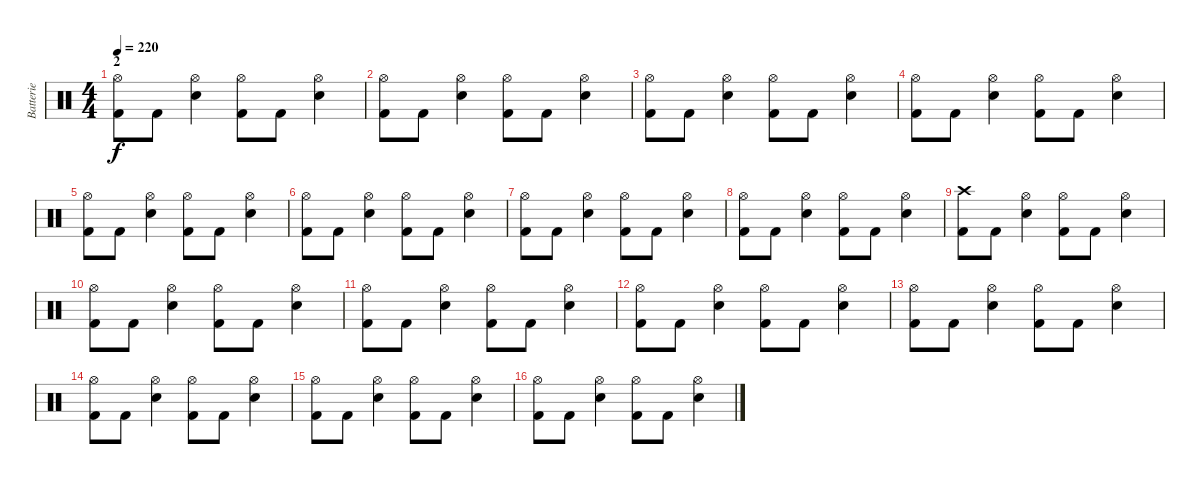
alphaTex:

\track ("Batterie" "Batterie") {instrument percussion}
\staff {score}
\articulation defaults
\ts (4 4)
\section ("" "2")
\tempo 220
\clef neutral
\ks c
("Hi-Hat (open)" "Kick (hit) 2").8{dy f} "Kick (hit) 2".8 ("Hi-Hat (open)" "Electric Snare (hit)").4 ("Hi-Hat (open)" "Kick (hit) 2").8 "Kick (hit) 2".8 ("Hi-Hat (open)" "Electric Snare (hit)").4 |
("Hi-Hat (open)" "Kick (hit) 2").8 "Kick (hit) 2".8 ("Hi-Hat (open)" "Electric Snare (hit)").4 ("Hi-Hat (open)" "Kick (hit) 2").8 "Kick (hit) 2".8 ("Hi-Hat (open)" "Electric Snare (hit)").4 |
("Hi-Hat (open)" "Kick (hit) 2").8 "Kick (hit) 2".8 ("Hi-Hat (open)" "Electric Snare (hit)").4 ("Hi-Hat (open)" "Kick (hit) 2").8 "Kick (hit) 2".8 ("Hi-Hat (open)" "Electric Snare (hit)").4 |
("Hi-Hat (open)" "Kick (hit) 2").8 "Kick (hit) 2".8 ("Hi-Hat (open)" "Electric Snare (hit)").4 ("Hi-Hat (open)" "Kick (hit) 2").8 "Kick (hit) 2".8 ("Hi-Hat (open)" "Electric Snare (hit)").4 |
("Hi-Hat (open)" "Kick (hit) 2").8 "Kick (hit) 2".8 ("Hi-Hat (open)" "Electric Snare (hit)").4 ("Hi-Hat (open)" "Kick (hit) 2").8 "Kick (hit) 2".8 ("Hi-Hat (open)" "Electric Snare (hit)").4 |
("Hi-Hat (open)" "Kick (hit) 2").8 "Kick (hit) 2".8 ("Hi-Hat (open)" "Electric Snare (hit)").4 ("Hi-Hat (open)" "Kick (hit) 2").8 "Kick (hit) 2".8 ("Hi-Hat (open)" "Electric Snare (hit)").4 |
("Hi-Hat (open)" "Kick (hit) 2").8 "Kick (hit) 2".8 ("Hi-Hat (open)" "Electric Snare (hit)").4 ("Hi-Hat (open)" "Kick (hit) 2").8 "Kick (hit) 2".8 ("Hi-Hat (open)" "Electric Snare (hit)").4 |
("Hi-Hat (open)" "Kick (hit) 2").8 "Kick (hit) 2".8 ("Hi-Hat (open)" "Electric Snare (hit)").4 ("Hi-Hat (open)" "Kick (hit) 2").8 "Kick (hit) 2".8 ("Hi-Hat (open)" "Electric Snare (hit)").4 |
("Crash high (hit)" "Kick (hit) 2").8 "Kick (hit) 2".8 ("Hi-Hat (open)" "Electric Snare (hit)").4 ("Hi-Hat (open)" "Kick (hit) 2").8 "Kick (hit) 2".8 ("Hi-Hat (open)" "Electric Snare (hit)").4 |
("Hi-Hat (open)" "Kick (hit) 2").8 "Kick (hit) 2".8 ("Hi-Hat (open)" "Electric Snare (hit)").4 ("Hi-Hat (open)" "Kick (hit) 2").8 "Kick (hit) 2".8 ("Hi-Hat (open)" "Electric Snare (hit)").4 |
("Hi-Hat (open)" "Kick (hit) 2").8 "Kick (hit) 2".8 ("Hi-Hat (open)" "Electric Snare (hit)").4 ("Hi-Hat (open)" "Kick (hit) 2").8 "Kick (hit) 2".8 ("Hi-Hat (open)" "Electric Snare (hit)").4 |
("Hi-Hat (open)" "Kick (hit) 2").8 "Kick (hit) 2".8 ("Hi-Hat (open)" "Electric Snare (hit)").4 ("Hi-Hat (open)" "Kick (hit) 2").8 "Kick (hit) 2".8 ("Hi-Hat (open)" "Electric Snare (hit)").4 |
("Hi-Hat (open)" "Kick (hit) 2").8 "Kick (hit) 2".8 ("Hi-Hat (open)" "Electric Snare (hit)").4 ("Hi-Hat (open)" "Kick (hit) 2").8 "Kick (hit) 2".8 ("Hi-Hat (open)" "Electric Snare (hit)").4 |
("Hi-Hat (open)" "Kick (hit) 2").8 "Kick (hit) 2".8 ("Hi-Hat (open)" "Electric Snare (hit)").4 ("Hi-Hat (open)" "Kick (hit) 2").8 "Kick (hit) 2".8 ("Hi-Hat (open)" "Electric Snare (hit)").4 |
("Hi-Hat (open)" "Kick (hit) 2").8 "Kick (hit) 2".8 ("Hi-Hat (open)" "Electric Snare (hit)").4 ("Hi-Hat (open)" "Kick (hit) 2").8 "Kick (hit) 2".8 ("Hi-Hat (open)" "Electric Snare (hit)").4 |
("Hi-Hat (open)" "Kick (hit) 2").8 "Kick (hit) 2".8 ("Hi-Hat (open)" "Electric Snare (hit)").4 ("Hi-Hat (open)" "Kick (hit) 2").8 "Kick (hit) 2".8 ("Hi-Hat (open)" "Electric Snare (hit)").4
